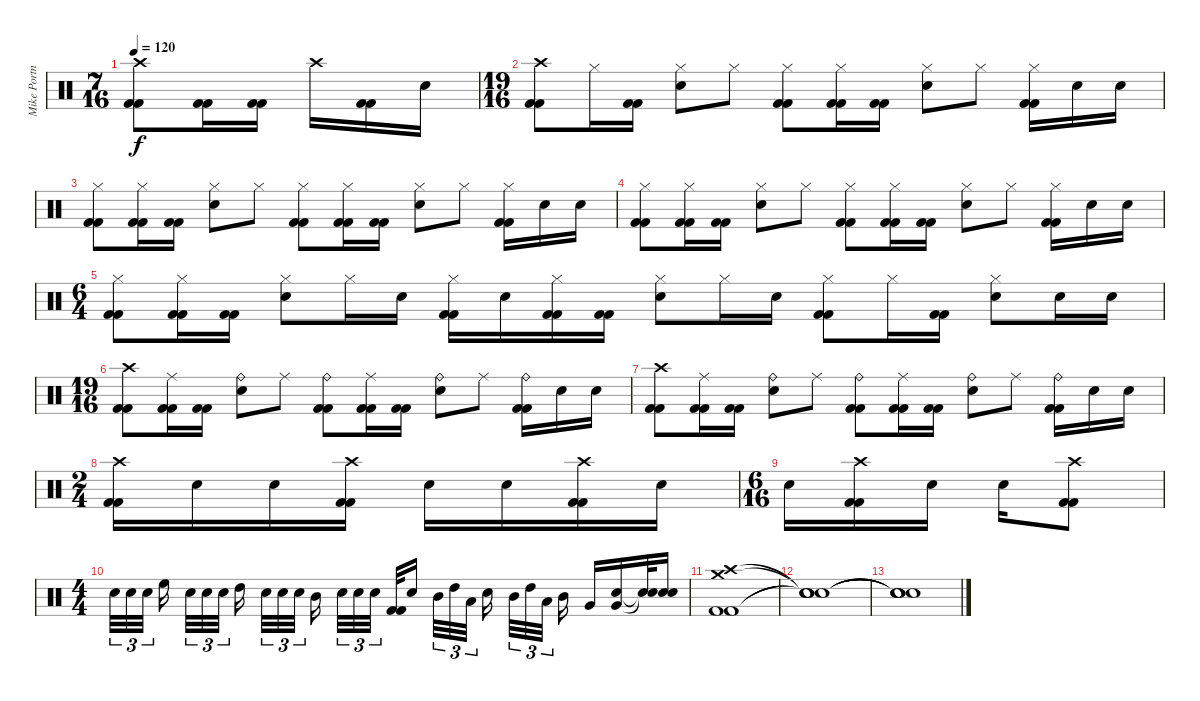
\track ("Mike Portnoy - Drum" "Mike Portn") {instrument percussion}
\staff {score}
\articulation defaults
\ts (7 16)
\tempo 120
\clef neutral
\ks c
("Crash high (hit)" "Kick (hit) 2" "Kick (hit) 2").8{dy f} ("Kick (hit) 2" "Kick (hit) 2").16 ("Kick (hit) 2" "Kick (hit) 2").16 "Crash high (hit)".16 ("Kick (hit) 2" "Kick (hit) 2").16 "Snare (hit) 2".16 |
\ts (19 16)
("Crash high (hit)" "Kick (hit) 2" "Kick (hit) 2").8 "Hi-Hat (closed)".16 ("Kick (hit) 2" "Kick (hit) 2").16 ("Hi-Hat (closed)" "Snare (hit) 2").8 "Hi-Hat (closed)".8 ("Hi-Hat (closed)" "Kick (hit) 2" "Kick (hit) 2").8 ("Hi-Hat (closed)" "Kick (hit) 2" "Kick (hit) 2").16 ("Kick (hit) 2" "Kick (hit) 2").16 ("Hi-Hat (closed)" "Snare (hit) 2").8 "Hi-Hat (closed)".8 ("Hi-Hat (closed)" "Kick (hit) 2" "Kick (hit) 2").16 "Snare (hit) 2".16 "Snare (hit) 2".16 |
("Hi-Hat (closed)" "Kick (hit) 2" "Kick (hit) 2").8 ("Hi-Hat (closed)" "Kick (hit) 2" "Kick (hit) 2").16 ("Kick (hit) 2" "Kick (hit) 2").16 ("Hi-Hat (closed)" "Snare (hit) 2").8 "Hi-Hat (closed)".8 ("Hi-Hat (closed)" "Kick (hit) 2" "Kick (hit) 2").8 ("Hi-Hat (closed)" "Kick (hit) 2" "Kick (hit) 2").16 ("Kick (hit) 2" "Kick (hit) 2").16 ("Hi-Hat (closed)" "Snare (hit) 2").8 "Hi-Hat (closed)".8 ("Hi-Hat (closed)" "Kick (hit) 2" "Kick (hit) 2").16 "Snare (hit) 2".16 "Snare (hit) 2".16 |
("Hi-Hat (closed)" "Kick (hit) 2" "Kick (hit) 2").8 ("Hi-Hat (closed)" "Kick (hit) 2" "Kick (hit) 2").16 ("Kick (hit) 2" "Kick (hit) 2").16 ("Hi-Hat (closed)" "Snare (hit) 2").8 "Hi-Hat (closed)".8 ("Hi-Hat (closed)" "Kick (hit) 2" "Kick (hit) 2").8 ("Hi-Hat (closed)" "Kick (hit) 2" "Kick (hit) 2").16 ("Kick (hit) 2" "Kick (hit) 2").16 ("Hi-Hat (closed)" "Snare (hit) 2").8 "Hi-Hat (closed)".8 ("Hi-Hat (closed)" "Kick (hit) 2" "Kick (hit) 2").16 "Snare (hit) 2".16 "Snare (hit) 2".16 |
\ts (6 4)
("Hi-Hat (closed)" "Kick (hit) 2" "Kick (hit) 2").8 ("Hi-Hat (closed)" "Kick (hit) 2" "Kick (hit) 2").16 ("Kick (hit) 2" "Kick (hit) 2").16 ("Hi-Hat (closed)" "Snare (hit) 2").8 "Hi-Hat (closed)".16 "Snare (hit) 2".16 ("Hi-Hat (closed)" "Kick (hit) 2" "Kick (hit) 2").16 "Snare (hit) 2".16 ("Hi-Hat (closed)" "Kick (hit) 2" "Kick (hit) 2").16 ("Kick (hit) 2" "Kick (hit) 2").16 ("Hi-Hat (closed)" "Snare (hit) 2").8 "Hi-Hat (closed)".16 "Snare (hit) 2".16 ("Hi-Hat (closed)" "Kick (hit) 2" "Kick (hit) 2").8 "Hi-Hat (closed)".16 ("Kick (hit) 2" "Kick (hit) 2").16 ("Hi-Hat (closed)" "Snare (hit) 2").8 "Snare (hit) 2".16 "Snare (hit) 2".16 |
\ts (19 16)
("Crash high (hit)" "Kick (hit) 2" "Kick (hit) 2").8 ("Ride (middle)" "Kick (hit) 2" "Kick (hit) 2").16 ("Kick (hit) 2" "Kick (hit) 2").16 ("Ride (bell)" "Snare (hit) 2").8 "Ride (middle)".8 ("Ride (bell)" "Kick (hit) 2" "Kick (hit) 2").8 ("Ride (middle)" "Kick (hit) 2" "Kick (hit) 2").16 ("Kick (hit) 2" "Kick (hit) 2").16 ("Ride (bell)" "Snare (hit) 2").8 "Ride (middle)".8 ("Ride (bell)" "Kick (hit) 2" "Kick (hit) 2").16 "Snare (hit) 2".16 "Snare (hit) 2".16 |
("Crash high (hit)" "Kick (hit) 2" "Kick (hit) 2").8 ("Ride (middle)" "Kick (hit) 2" "Kick (hit) 2").16 ("Kick (hit) 2" "Kick (hit) 2").16 ("Ride (bell)" "Snare (hit) 2").8 "Ride (middle)".8 ("Ride (bell)" "Kick (hit) 2" "Kick (hit) 2").8 ("Ride (middle)" "Kick (hit) 2" "Kick (hit) 2").16 ("Kick (hit) 2" "Kick (hit) 2").16 ("Ride (bell)" "Snare (hit) 2").8 "Ride (middle)".8 ("Ride (bell)" "Kick (hit) 2" "Kick (hit) 2").16 "Snare (hit) 2".16 "Snare (hit) 2".16 |
\ts (2 4)
("Crash high (hit)" "Kick (hit) 2" "Kick (hit) 2").16 "Snare (hit) 2".16 "Snare (hit) 2".16 ("Crash high (hit)" "Kick (hit) 2" "Kick (hit) 2").16 "Snare (hit) 2".16 "Snare (hit) 2".16 ("Crash high (hit)" "Kick (hit) 2" "Kick (hit) 2").16 "Snare (hit) 2".16 |
\ts (6 16)
"Snare (hit) 2".16 ("Crash high (hit)" "Kick (hit) 2" "Kick (hit) 2").16 "Snare (hit) 2".16 "Snare (hit) 2".16 ("Crash high (hit)" "Kick (hit) 2" "Kick (hit) 2").8 |
\ts (4 4)
"Snare (hit) 2".32{tu (3 2)} "Snare (hit) 2".32{tu (3 2)} "Snare (hit) 2".32{tu (3 2)} "High Floor Tom (hit)".16 "Snare (hit) 2".32{tu (3 2)} "Snare (hit) 2".32{tu (3 2)} "Snare (hit) 2".32{tu (3 2)} "High Tom (hit)".16 "Snare (hit) 2".32{tu (3 2)} "Snare (hit) 2".32{tu (3 2)} "Snare (hit) 2".32{tu (3 2)} "Mid Tom (hit)".16 "Snare (hit) 2".32{tu (3 2)} "Snare (hit) 2".32{tu (3 2)} "Snare (hit) 2".32{tu (3 2)} ("Kick (hit) 2" "Kick (hit) 2").32 "Snare (hit) 2".16 "Mid Tom (hit)".32{tu (3 2)} "High Tom (hit)".32{tu (3 2)} "Low Tom (hit)".32{tu (3 2)} "Snare (hit) 2".16 "Mid Tom (hit)".32{tu (3 2)} "High Tom (hit)".32{tu (3 2)} "Low Tom (hit)".32{tu (3 2)} "Mid Tom (hit)".16 "Very Low Tom (hit)".16 ("Snare (hit) 2" "Very Low Tom (hit)").16 ("Snare (hit)"{t} "Snare (hit)"{t}).32 ("Snare (hit)"{t} "Snare (hit)"{t}).16 |
("Crash high (hit)" "Crash medium (hit)" "Kick (hit) 2" "Kick (hit) 2").1 |
("Snare (hit)"{t} "Snare (hit)"{t} "Snare (hit)"{t} "Snare (hit)"{t}).1 |
("Snare (hit)"{t} "Snare (hit)"{t} "Snare (hit)"{t} "Snare (hit)"{t}).1
